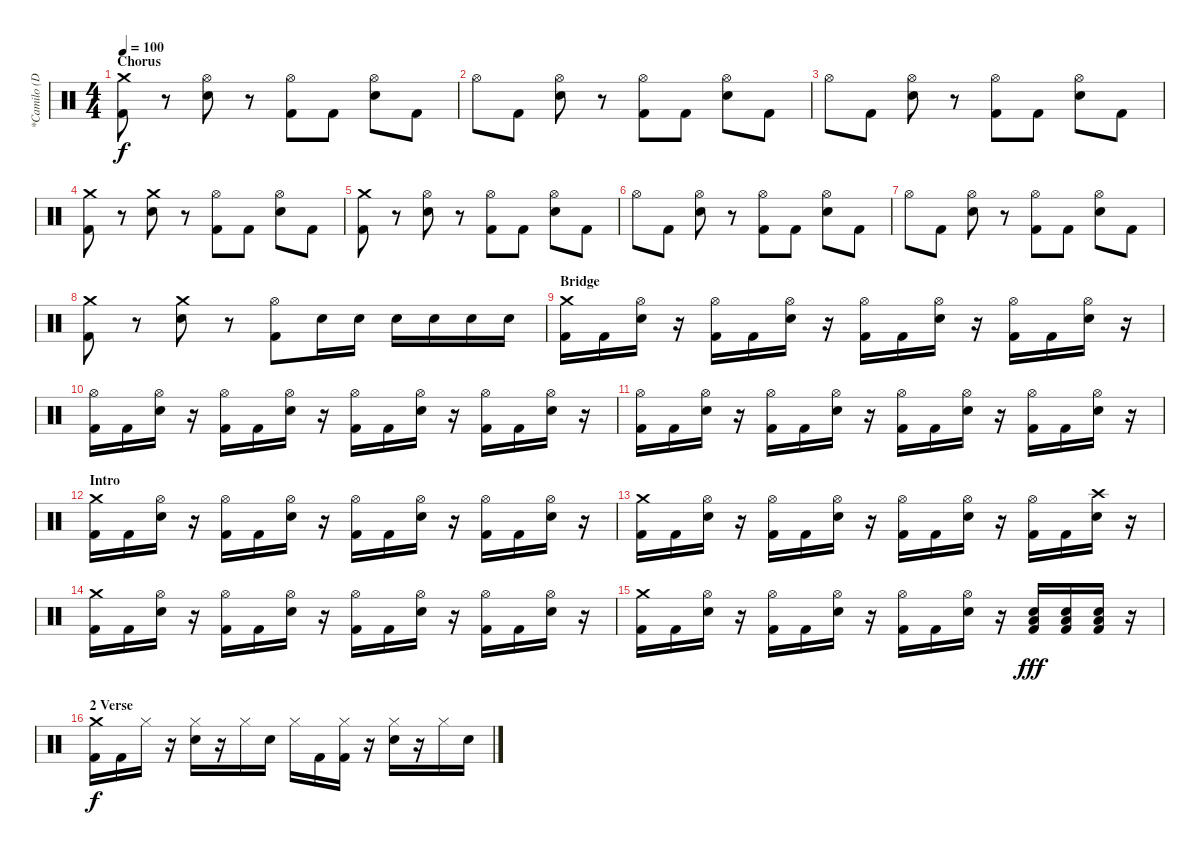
\track ("*Camilo (Drums)" "*Camilo (D") {instrument percussion}
\staff {score}
\articulation defaults
\ts (4 4)
\section ("" "Chorus")
\tempo 100
\clef neutral
\ks c
("Crash medium (hit)" "Kick (hit) 2").8{dy f volume 16} r.8 ("Hi-Hat (open)" "Electric Snare (hit)").8 r.8 ("Hi-Hat (open)" "Kick (hit) 2").8 "Kick (hit) 2".8 ("Hi-Hat (open)" "Electric Snare (hit)").8 "Kick (hit) 2".8 |
"Hi-Hat (open)".8 "Kick (hit) 2".8 ("Hi-Hat (open)" "Electric Snare (hit)").8 r.8 ("Hi-Hat (open)" "Kick (hit) 2").8 "Kick (hit) 2".8 ("Hi-Hat (open)" "Electric Snare (hit)").8 "Kick (hit) 2".8 |
"Hi-Hat (open)".8 "Kick (hit) 2".8 ("Hi-Hat (open)" "Electric Snare (hit)").8 r.8 ("Hi-Hat (open)" "Kick (hit) 2").8 "Kick (hit) 2".8 ("Hi-Hat (open)" "Electric Snare (hit)").8 "Kick (hit) 2".8 |
("Crash medium (hit)" "Kick (hit) 2").8 r.8 ("Crash medium (hit)" "Electric Snare (hit)").8 r.8 ("Hi-Hat (open)" "Kick (hit) 2").8 "Kick (hit) 2".8 ("Hi-Hat (open)" "Electric Snare (hit)").8 "Kick (hit) 2".8 |
("Crash medium (hit)" "Kick (hit) 2").8{volume 16} r.8 ("Hi-Hat (open)" "Electric Snare (hit)").8 r.8 ("Hi-Hat (open)" "Kick (hit) 2").8 "Kick (hit) 2".8 ("Hi-Hat (open)" "Electric Snare (hit)").8 "Kick (hit) 2".8 |
"Hi-Hat (open)".8 "Kick (hit) 2".8 ("Hi-Hat (open)" "Electric Snare (hit)").8 r.8 ("Hi-Hat (open)" "Kick (hit) 2").8 "Kick (hit) 2".8 ("Hi-Hat (open)" "Electric Snare (hit)").8 "Kick (hit) 2".8 |
"Hi-Hat (open)".8 "Kick (hit) 2".8 ("Hi-Hat (open)" "Electric Snare (hit)").8 r.8 ("Hi-Hat (open)" "Kick (hit) 2").8 "Kick (hit) 2".8 ("Hi-Hat (open)" "Electric Snare (hit)").8 "Kick (hit) 2".8 |
("Crash medium (hit)" "Kick (hit) 2").8 r.8 ("Crash medium (hit)" "Electric Snare (hit)").8 r.8 ("Hi-Hat (open)" "Kick (hit) 2").8 "Electric Snare (hit)".16 "Electric Snare (hit)".16 "Electric Snare (hit)".16 "Electric Snare (hit)".16 "Electric Snare (hit)".16 "Electric Snare (hit)".16 |
\section ("" "Bridge")
("Crash medium (hit)" "Kick (hit) 2").16 "Kick (hit) 2".16 ("Hi-Hat (open)" "Electric Snare (hit)").16 r.16 ("Hi-Hat (open)" "Kick (hit) 2").16 "Kick (hit) 2".16 ("Hi-Hat (open)" "Electric Snare (hit)").16 r.16 ("Hi-Hat (open)" "Kick (hit) 2").16 "Kick (hit) 2".16 ("Hi-Hat (open)" "Electric Snare (hit)").16 r.16 ("Hi-Hat (open)" "Kick (hit) 2").16 "Kick (hit) 2".16 ("Hi-Hat (open)" "Electric Snare (hit)").16 r.16 |
("Hi-Hat (open)" "Kick (hit) 2").16 "Kick (hit) 2".16 ("Hi-Hat (open)" "Electric Snare (hit)").16 r.16 ("Hi-Hat (open)" "Kick (hit) 2").16 "Kick (hit) 2".16 ("Hi-Hat (open)" "Electric Snare (hit)").16 r.16 ("Hi-Hat (open)" "Kick (hit) 2").16 "Kick (hit) 2".16 ("Hi-Hat (open)" "Electric Snare (hit)").16 r.16 ("Hi-Hat (open)" "Kick (hit) 2").16 "Kick (hit) 2".16 ("Hi-Hat (open)" "Electric Snare (hit)").16 r.16 |
("Hi-Hat (open)" "Kick (hit) 2").16 "Kick (hit) 2".16 ("Hi-Hat (open)" "Electric Snare (hit)").16 r.16 ("Hi-Hat (open)" "Kick (hit) 2").16 "Kick (hit) 2".16 ("Hi-Hat (open)" "Electric Snare (hit)").16 r.16 ("Hi-Hat (open)" "Kick (hit) 2").16 "Kick (hit) 2".16 ("Hi-Hat (open)" "Electric Snare (hit)").16 r.16 ("Hi-Hat (open)" "Kick (hit) 2").16 "Kick (hit) 2".16 ("Hi-Hat (open)" "Electric Snare (hit)").16 r.16 |
\section ("" "Intro")
("Crash medium (hit)" "Kick (hit) 2").16 "Kick (hit) 2".16 ("Hi-Hat (open)" "Electric Snare (hit)").16 r.16 ("Hi-Hat (open)" "Kick (hit) 2").16 "Kick (hit) 2".16 ("Hi-Hat (open)" "Electric Snare (hit)").16 r.16 ("Hi-Hat (open)" "Kick (hit) 2").16 "Kick (hit) 2".16 ("Hi-Hat (open)" "Electric Snare (hit)").16 r.16 ("Hi-Hat (open)" "Kick (hit) 2").16 "Kick (hit) 2".16 ("Hi-Hat (open)" "Electric Snare (hit)").16 r.16 |
("Crash medium (hit)" "Kick (hit) 2").16 "Kick (hit) 2".16 ("Hi-Hat (open)" "Electric Snare (hit)").16 r.16 ("Hi-Hat (open)" "Kick (hit) 2").16 "Kick (hit) 2".16 ("Hi-Hat (open)" "Electric Snare (hit)").16 r.16 ("Hi-Hat (open)" "Kick (hit) 2").16 "Kick (hit) 2".16 ("Hi-Hat (open)" "Electric Snare (hit)").16 r.16 ("Hi-Hat (open)" "Kick (hit) 2").16 "Kick (hit) 2".16 ("Crash high (hit)" "Electric Snare (hit)").16 r.16 |
("Crash medium (hit)" "Kick (hit) 2").16 "Kick (hit) 2".16 ("Hi-Hat (open)" "Electric Snare (hit)").16 r.16 ("Hi-Hat (open)" "Kick (hit) 2").16 "Kick (hit) 2".16 ("Hi-Hat (open)" "Electric Snare (hit)").16 r.16 ("Hi-Hat (open)" "Kick (hit) 2").16 "Kick (hit) 2".16 ("Hi-Hat (open)" "Electric Snare (hit)").16 r.16 ("Hi-Hat (open)" "Kick (hit) 2").16 "Kick (hit) 2".16 ("Hi-Hat (open)" "Electric Snare (hit)").16 r.16 |
("Crash medium (hit)" "Kick (hit) 2").16 "Kick (hit) 2".16 ("Hi-Hat (open)" "Electric Snare (hit)").16 r.16 ("Hi-Hat (open)" "Kick (hit) 2").16 "Kick (hit) 2".16 ("Hi-Hat (open)" "Electric Snare (hit)").16 r.16 ("Hi-Hat (open)" "Kick (hit) 2").16 "Kick (hit) 2".16 ("Hi-Hat (open)" "Electric Snare (hit)").16 r.16 ("Electric Snare (hit)" "Low Floor Tom (hit)" "Kick (hit) 2").16{dy fff} ("Electric Snare (hit)" "Low Floor Tom (hit)" "Kick (hit) 2").16 ("Electric Snare (hit)" "Low Floor Tom (hit)" "Kick (hit) 2").16 r.16 |
\section ("" "2 Verse")
("Crash medium (hit)" "Kick (hit) 2").16{dy f} "Kick (hit) 2".16 "Hi-Hat (closed)".16 r.16 ("Hi-Hat (closed)" "Electric Snare (hit)").16 r.16 "Hi-Hat (closed)".16 "Electric Snare (hit)".16 "Hi-Hat (closed)".16 "Kick (hit) 2".16 ("Hi-Hat (closed)" "Kick (hit) 2").16 r.16 ("Hi-Hat (closed)" "Electric Snare (hit)").16 r.16 "Hi-Hat (closed)".16 "Electric Snare (hit)".16
